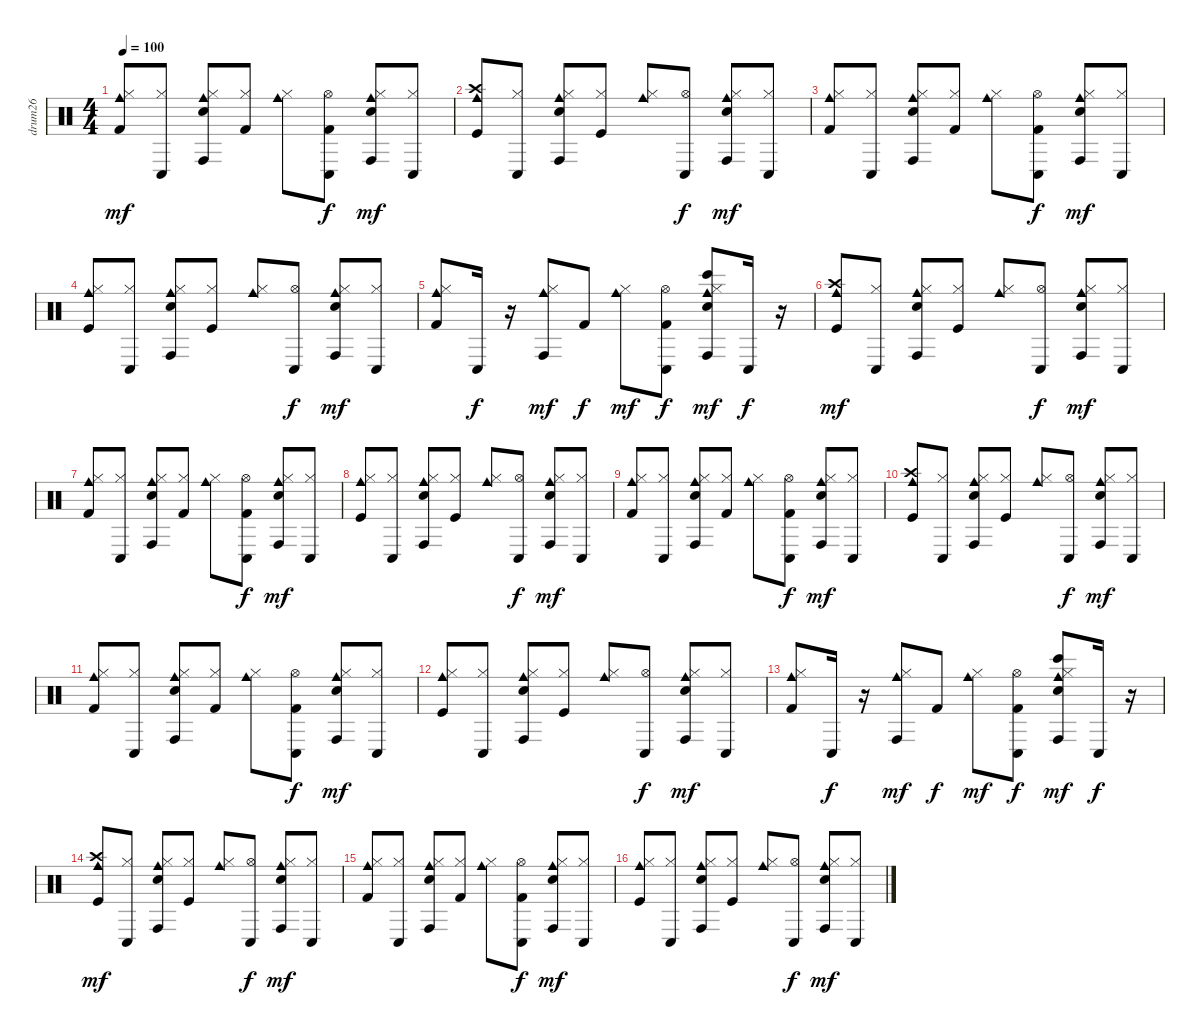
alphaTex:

\track ("drum26" "drum26") {instrument percussion}
\staff {score}
\articulation defaults
\ts (4 4)
\tempo 100
\clef neutral
\ks c
("Hi-Hat (closed)" "Cowbell medium (hit)" "Kick (hit) 2").8{dy mf} ("Hi-Hat (closed)" "Conga low (hit)").8 ("Hi-Hat (closed)" "Cowbell medium (hit)" "Electric Snare (hit)" "Conga high (hit)").8 ("Kick (hit) 2" "Hi-Hat (closed)").8 ("Hi-Hat (closed)" "Cowbell medium (hit)").8 ("Conga low (hit)" "Kick (hit) 2" "Hi-Hat (open)").8{dy f} ("Conga high (hit)" "Electric Snare (hit)" "Hi-Hat (closed)" "Cowbell medium (hit)").8{dy mf} ("Hi-Hat (closed)" "Conga low (hit)").8 |
("Kick (hit)" "Crash high (hit)" "Cowbell medium (hit)").8 ("Hi-Hat (closed)" "Conga low (hit)").8 ("Hi-Hat (closed)" "Electric Snare (hit)" "Conga high (hit)" "Cowbell medium (hit)").8 ("Kick (hit)" "Hi-Hat (closed)").8 ("Hi-Hat (closed)" "Cowbell medium (hit)").8 ("Hi-Hat (open)" "Conga low (hit)").8{dy f} ("Electric Snare (hit)" "Hi-Hat (closed)" "Cowbell medium (hit)" "Conga high (hit)").8{dy mf} ("Hi-Hat (closed)" "Conga low (hit)").8 |
("Kick (hit) 2" "Hi-Hat (closed)" "Cowbell medium (hit)").8 ("Hi-Hat (closed)" "Conga low (hit)").8 ("Electric Snare (hit)" "Hi-Hat (closed)" "Cowbell medium (hit)" "Conga high (hit)").8 ("Kick (hit) 2" "Hi-Hat (closed)").8 ("Hi-Hat (closed)" "Cowbell medium (hit)").8 ("Kick (hit) 2" "Hi-Hat (open)" "Conga low (hit)").8{dy f} ("Electric Snare (hit)" "Hi-Hat (closed)" "Conga high (hit)" "Cowbell medium (hit)").8{dy mf} ("Hi-Hat (closed)" "Conga low (hit)").8 |
("Kick (hit)" "Cowbell medium (hit)" "Hi-Hat (closed)").8 ("Conga low (hit)" "Hi-Hat (closed)").8 ("Cowbell medium (hit)" "Electric Snare (hit)" "Hi-Hat (closed)" "Conga high (hit)").8 ("Kick (hit)" "Hi-Hat (closed)").8 ("Cowbell medium (hit)" "Hi-Hat (closed)").8 ("Hi-Hat (open)" "Conga low (hit)").8{dy f} ("Electric Snare (hit)" "Cowbell medium (hit)" "Hi-Hat (closed)" "Conga high (hit)").8{dy mf} ("Hi-Hat (closed)" "Conga low (hit)").8 |
("Hi-Hat (closed)" "Cowbell medium (hit)" "Kick (hit) 2").8 "Conga low (hit)".16{dy f} r.16 ("Conga high (hit)" "Hi-Hat (closed)" "Cowbell medium (hit)").8{dy mf} "Kick (hit) 2".8{dy f} ("Hi-Hat (closed)" "Cowbell medium (hit)").8{dy mf} ("Conga low (hit)" "Kick (hit) 2" "Hi-Hat (open)").8{dy f} ("Bongo High (hit)" "Electric Snare (hit)" "Hi-Hat (closed)" "Cowbell medium (hit)" "Conga high (hit)").8{dy mf} "Conga low (hit)".16{dy f} r.16 |
("Kick (hit)" "Cowbell medium (hit)" "Crash high (hit)").8{dy mf} ("Conga low (hit)" "Hi-Hat (closed)").8 ("Electric Snare (hit)" "Hi-Hat (closed)" "Cowbell medium (hit)" "Conga high (hit)").8 ("Kick (hit)" "Hi-Hat (closed)").8 ("Hi-Hat (closed)" "Cowbell medium (hit)").8 ("Hi-Hat (open)" "Conga low (hit)").8{dy f} ("Hi-Hat (closed)" "Cowbell medium (hit)" "Electric Snare (hit)" "Conga high (hit)").8{dy mf} ("Conga low (hit)" "Hi-Hat (closed)").8 |
("Kick (hit) 2" "Cowbell medium (hit)" "Hi-Hat (closed)").8 ("Hi-Hat (closed)" "Conga low (hit)").8 ("Hi-Hat (closed)" "Cowbell medium (hit)" "Conga high (hit)" "Electric Snare (hit)").8 ("Kick (hit) 2" "Hi-Hat (closed)").8 ("Hi-Hat (closed)" "Cowbell medium (hit)").8 ("Conga low (hit)" "Kick (hit) 2" "Hi-Hat (open)").8{dy f} ("Electric Snare (hit)" "Conga high (hit)" "Hi-Hat (closed)" "Cowbell medium (hit)").8{dy mf} ("Conga low (hit)" "Hi-Hat (closed)").8 |
("Hi-Hat (closed)" "Kick (hit)" "Cowbell medium (hit)").8 ("Conga low (hit)" "Hi-Hat (closed)").8 ("Hi-Hat (closed)" "Electric Snare (hit)" "Cowbell medium (hit)" "Conga high (hit)").8 ("Kick (hit)" "Hi-Hat (closed)").8 ("Hi-Hat (closed)" "Cowbell medium (hit)").8 ("Hi-Hat (open)" "Conga low (hit)").8{dy f} ("Electric Snare (hit)" "Hi-Hat (closed)" "Cowbell medium (hit)" "Conga high (hit)").8{dy mf} ("Conga low (hit)" "Hi-Hat (closed)").8 |
("Kick (hit) 2" "Hi-Hat (closed)" "Cowbell medium (hit)").8 ("Conga low (hit)" "Hi-Hat (closed)").8 ("Conga high (hit)" "Hi-Hat (closed)" "Cowbell medium (hit)" "Electric Snare (hit)").8 ("Kick (hit) 2" "Hi-Hat (closed)").8 ("Cowbell medium (hit)" "Hi-Hat (closed)").8 ("Kick (hit) 2" "Hi-Hat (open)" "Conga low (hit)").8{dy f} ("Electric Snare (hit)" "Cowbell medium (hit)" "Hi-Hat (closed)" "Conga high (hit)").8{dy mf} ("Hi-Hat (closed)" "Conga low (hit)").8 |
("Crash high (hit)" "Cowbell medium (hit)" "Kick (hit)").8 ("Hi-Hat (closed)" "Conga low (hit)").8 ("Cowbell medium (hit)" "Electric Snare (hit)" "Hi-Hat (closed)" "Conga high (hit)").8 ("Kick (hit)" "Hi-Hat (closed)").8 ("Hi-Hat (closed)" "Cowbell medium (hit)").8 ("Hi-Hat (open)" "Conga low (hit)").8{dy f} ("Electric Snare (hit)" "Hi-Hat (closed)" "Cowbell medium (hit)" "Conga high (hit)").8{dy mf} ("Hi-Hat (closed)" "Conga low (hit)").8 |
("Hi-Hat (closed)" "Cowbell medium (hit)" "Kick (hit) 2").8 ("Conga low (hit)" "Hi-Hat (closed)").8 ("Cowbell medium (hit)" "Hi-Hat (closed)" "Electric Snare (hit)" "Conga high (hit)").8 ("Kick (hit) 2" "Hi-Hat (closed)").8 ("Hi-Hat (closed)" "Cowbell medium (hit)").8 ("Conga low (hit)" "Kick (hit) 2" "Hi-Hat (open)").8{dy f} ("Conga high (hit)" "Electric Snare (hit)" "Cowbell medium (hit)" "Hi-Hat (closed)").8{dy mf} ("Hi-Hat (closed)" "Conga low (hit)").8 |
("Cowbell medium (hit)" "Kick (hit)" "Hi-Hat (closed)").8 ("Hi-Hat (closed)" "Conga low (hit)").8 ("Hi-Hat (closed)" "Cowbell medium (hit)" "Electric Snare (hit)" "Conga high (hit)").8 ("Hi-Hat (closed)" "Kick (hit)").8 ("Hi-Hat (closed)" "Cowbell medium (hit)").8 ("Hi-Hat (open)" "Conga low (hit)").8{dy f} ("Hi-Hat (closed)" "Electric Snare (hit)" "Cowbell medium (hit)" "Conga high (hit)").8{dy mf} ("Hi-Hat (closed)" "Conga low (hit)").8 |
("Kick (hit) 2" "Cowbell medium (hit)" "Hi-Hat (closed)").8 "Conga low (hit)".16{dy f} r.16 ("Hi-Hat (closed)" "Cowbell medium (hit)" "Conga high (hit)").8{dy mf} "Kick (hit) 2".8{dy f} ("Hi-Hat (closed)" "Cowbell medium (hit)").8{dy mf} ("Hi-Hat (open)" "Conga low (hit)" "Kick (hit) 2").8{dy f} ("Bongo High (hit)" "Cowbell medium (hit)" "Electric Snare (hit)" "Hi-Hat (closed)" "Conga high (hit)").8{dy mf} "Conga low (hit)".16{dy f} r.16 |
("Cowbell medium (hit)" "Kick (hit)" "Crash high (hit)").8{dy mf} ("Hi-Hat (closed)" "Conga low (hit)").8 ("Electric Snare (hit)" "Hi-Hat (closed)" "Cowbell medium (hit)" "Conga high (hit)").8 ("Kick (hit)" "Hi-Hat (closed)").8 ("Hi-Hat (closed)" "Cowbell medium (hit)").8 ("Hi-Hat (open)" "Conga low (hit)").8{dy f} ("Electric Snare (hit)" "Cowbell medium (hit)" "Hi-Hat (closed)" "Conga high (hit)").8{dy mf} ("Hi-Hat (closed)" "Conga low (hit)").8 |
("Hi-Hat (closed)" "Kick (hit) 2" "Cowbell medium (hit)").8 ("Hi-Hat (closed)" "Conga low (hit)").8 ("Electric Snare (hit)" "Hi-Hat (closed)" "Cowbell medium (hit)" "Conga high (hit)").8 ("Kick (hit) 2" "Hi-Hat (closed)").8 ("Hi-Hat (closed)" "Cowbell medium (hit)").8 ("Kick (hit) 2" "Hi-Hat (open)" "Conga low (hit)").8{dy f} ("Hi-Hat (closed)" "Cowbell medium (hit)" "Electric Snare (hit)" "Conga high (hit)").8{dy mf} ("Hi-Hat (closed)" "Conga low (hit)").8 |
("Hi-Hat (closed)" "Kick (hit)" "Cowbell medium (hit)").8 ("Hi-Hat (closed)" "Conga low (hit)").8 ("Cowbell medium (hit)" "Hi-Hat (closed)" "Conga high (hit)" "Electric Snare (hit)").8 ("Hi-Hat (closed)" "Kick (hit)").8 ("Cowbell medium (hit)" "Hi-Hat (closed)").8 ("Conga low (hit)" "Hi-Hat (open)").8{dy f} ("Hi-Hat (closed)" "Cowbell medium (hit)" "Conga high (hit)" "Electric Snare (hit)").8{dy mf} ("Hi-Hat (closed)" "Conga low (hit)").8
